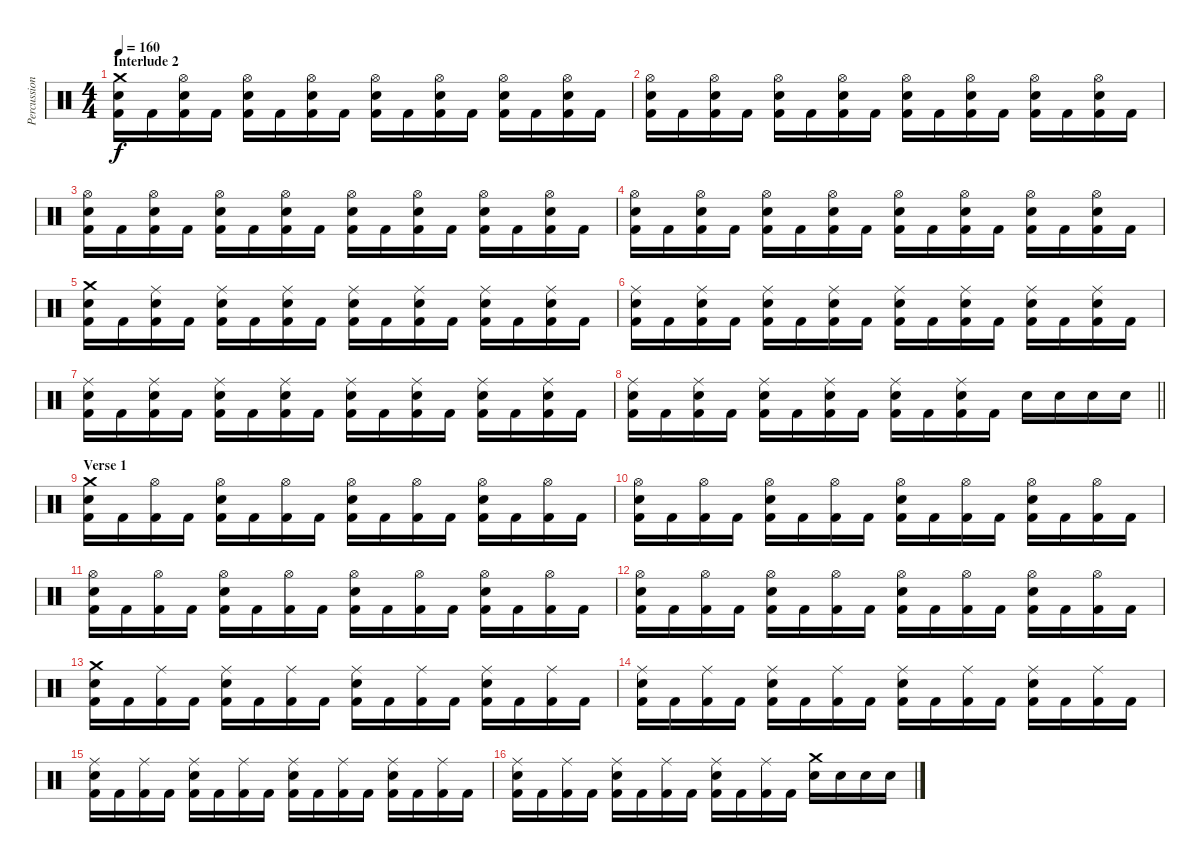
\track ("Percussion" "Percussion") {instrument percussion}
\staff {score}
\articulation defaults
\ts (4 4)
\section ("" "Interlude 2")
\tempo 160
\clef neutral
\ks c
("Crash medium (hit)" "Snare (hit) 2" "Kick (hit) 2").16{dy f} "Kick (hit) 2".16 ("Hi-Hat (open)" "Snare (hit) 2" "Kick (hit) 2").16 "Kick (hit) 2".16 ("Hi-Hat (open)" "Snare (hit) 2" "Kick (hit) 2").16 "Kick (hit) 2".16 ("Hi-Hat (open)" "Snare (hit) 2" "Kick (hit) 2").16 "Kick (hit) 2".16 ("Hi-Hat (open)" "Snare (hit) 2" "Kick (hit) 2").16 "Kick (hit) 2".16 ("Hi-Hat (open)" "Snare (hit) 2" "Kick (hit) 2").16 "Kick (hit) 2".16 ("Hi-Hat (open)" "Snare (hit) 2" "Kick (hit) 2").16 "Kick (hit) 2".16 ("Hi-Hat (open)" "Snare (hit) 2" "Kick (hit) 2").16 "Kick (hit) 2".16 |
("Hi-Hat (open)" "Snare (hit) 2" "Kick (hit) 2").16 "Kick (hit) 2".16 ("Hi-Hat (open)" "Snare (hit) 2" "Kick (hit) 2").16 "Kick (hit) 2".16 ("Hi-Hat (open)" "Snare (hit) 2" "Kick (hit) 2").16 "Kick (hit) 2".16 ("Hi-Hat (open)" "Snare (hit) 2" "Kick (hit) 2").16 "Kick (hit) 2".16 ("Hi-Hat (open)" "Snare (hit) 2" "Kick (hit) 2").16 "Kick (hit) 2".16 ("Hi-Hat (open)" "Snare (hit) 2" "Kick (hit) 2").16 "Kick (hit) 2".16 ("Hi-Hat (open)" "Snare (hit) 2" "Kick (hit) 2").16 "Kick (hit) 2".16 ("Hi-Hat (open)" "Snare (hit) 2" "Kick (hit) 2").16 "Kick (hit) 2".16 |
("Hi-Hat (open)" "Snare (hit) 2" "Kick (hit) 2").16 "Kick (hit) 2".16 ("Hi-Hat (open)" "Snare (hit) 2" "Kick (hit) 2").16 "Kick (hit) 2".16 ("Hi-Hat (open)" "Snare (hit) 2" "Kick (hit) 2").16 "Kick (hit) 2".16 ("Hi-Hat (open)" "Snare (hit) 2" "Kick (hit) 2").16 "Kick (hit) 2".16 ("Hi-Hat (open)" "Snare (hit) 2" "Kick (hit) 2").16 "Kick (hit) 2".16 ("Hi-Hat (open)" "Snare (hit) 2" "Kick (hit) 2").16 "Kick (hit) 2".16 ("Hi-Hat (open)" "Snare (hit) 2" "Kick (hit) 2").16 "Kick (hit) 2".16 ("Hi-Hat (open)" "Snare (hit) 2" "Kick (hit) 2").16 "Kick (hit) 2".16 |
("Hi-Hat (open)" "Snare (hit) 2" "Kick (hit) 2").16 "Kick (hit) 2".16 ("Hi-Hat (open)" "Snare (hit) 2" "Kick (hit) 2").16 "Kick (hit) 2".16 ("Hi-Hat (open)" "Snare (hit) 2" "Kick (hit) 2").16 "Kick (hit) 2".16 ("Hi-Hat (open)" "Snare (hit) 2" "Kick (hit) 2").16 "Kick (hit) 2".16 ("Hi-Hat (open)" "Snare (hit) 2" "Kick (hit) 2").16 "Kick (hit) 2".16 ("Hi-Hat (open)" "Snare (hit) 2" "Kick (hit) 2").16 "Kick (hit) 2".16 ("Hi-Hat (open)" "Snare (hit) 2" "Kick (hit) 2").16 "Kick (hit) 2".16 ("Hi-Hat (open)" "Snare (hit) 2" "Kick (hit) 2").16 "Kick (hit) 2".16 |
("Crash medium (hit)" "Snare (hit) 2" "Kick (hit) 2").16 "Kick (hit) 2".16 ("Ride (middle)" "Snare (hit) 2" "Kick (hit) 2").16 "Kick (hit) 2".16 ("Ride (middle)" "Snare (hit) 2" "Kick (hit) 2").16 "Kick (hit) 2".16 ("Ride (middle)" "Snare (hit) 2" "Kick (hit) 2").16 "Kick (hit) 2".16 ("Ride (middle)" "Snare (hit) 2" "Kick (hit) 2").16 "Kick (hit) 2".16 ("Ride (middle)" "Snare (hit) 2" "Kick (hit) 2").16 "Kick (hit) 2".16 ("Ride (middle)" "Snare (hit) 2" "Kick (hit) 2").16 "Kick (hit) 2".16 ("Ride (middle)" "Snare (hit) 2" "Kick (hit) 2").16 "Kick (hit) 2".16 |
("Ride (middle)" "Snare (hit) 2" "Kick (hit) 2").16 "Kick (hit) 2".16 ("Ride (middle)" "Snare (hit) 2" "Kick (hit) 2").16 "Kick (hit) 2".16 ("Ride (middle)" "Snare (hit) 2" "Kick (hit) 2").16 "Kick (hit) 2".16 ("Ride (middle)" "Snare (hit) 2" "Kick (hit) 2").16 "Kick (hit) 2".16 ("Ride (middle)" "Snare (hit) 2" "Kick (hit) 2").16 "Kick (hit) 2".16 ("Ride (middle)" "Snare (hit) 2" "Kick (hit) 2").16 "Kick (hit) 2".16 ("Ride (middle)" "Snare (hit) 2" "Kick (hit) 2").16 "Kick (hit) 2".16 ("Ride (middle)" "Snare (hit) 2" "Kick (hit) 2").16 "Kick (hit) 2".16 |
("Ride (middle)" "Snare (hit) 2" "Kick (hit) 2").16 "Kick (hit) 2".16 ("Ride (middle)" "Snare (hit) 2" "Kick (hit) 2").16 "Kick (hit) 2".16 ("Ride (middle)" "Snare (hit) 2" "Kick (hit) 2").16 "Kick (hit) 2".16 ("Ride (middle)" "Snare (hit) 2" "Kick (hit) 2").16 "Kick (hit) 2".16 ("Ride (middle)" "Snare (hit) 2" "Kick (hit) 2").16 "Kick (hit) 2".16 ("Ride (middle)" "Snare (hit) 2" "Kick (hit) 2").16 "Kick (hit) 2".16 ("Ride (middle)" "Snare (hit) 2" "Kick (hit) 2").16 "Kick (hit) 2".16 ("Ride (middle)" "Snare (hit) 2" "Kick (hit) 2").16 "Kick (hit) 2".16 |
\barLineRight lightlight
("Ride (middle)" "Snare (hit) 2" "Kick (hit) 2").16 "Kick (hit) 2".16 ("Ride (middle)" "Snare (hit) 2" "Kick (hit) 2").16 "Kick (hit) 2".16 ("Ride (middle)" "Snare (hit) 2" "Kick (hit) 2").16 "Kick (hit) 2".16 ("Ride (middle)" "Snare (hit) 2" "Kick (hit) 2").16 "Kick (hit) 2".16 ("Ride (middle)" "Snare (hit) 2" "Kick (hit) 2").16 "Kick (hit) 2".16 ("Ride (middle)" "Snare (hit) 2" "Kick (hit) 2").16 "Kick (hit) 2".16 "Snare (hit) 2".16 "Snare (hit) 2".16 "Snare (hit) 2".16 "Snare (hit) 2".16 |
\section ("" "Verse 1")
("Crash medium (hit)" "Snare (hit) 2" "Kick (hit) 2").16 "Kick (hit) 2".16 ("Hi-Hat (open)" "Kick (hit) 2").16 "Kick (hit) 2".16 ("Hi-Hat (open)" "Snare (hit) 2" "Kick (hit) 2").16 "Kick (hit) 2".16 ("Hi-Hat (open)" "Kick (hit) 2").16 "Kick (hit) 2".16 ("Hi-Hat (open)" "Snare (hit) 2" "Kick (hit) 2").16 "Kick (hit) 2".16 ("Hi-Hat (open)" "Kick (hit) 2").16 "Kick (hit) 2".16 ("Hi-Hat (open)" "Snare (hit) 2" "Kick (hit) 2").16 "Kick (hit) 2".16 ("Hi-Hat (open)" "Kick (hit) 2").16 "Kick (hit) 2".16 |
("Hi-Hat (open)" "Snare (hit) 2" "Kick (hit) 2").16 "Kick (hit) 2".16 ("Hi-Hat (open)" "Kick (hit) 2").16 "Kick (hit) 2".16 ("Hi-Hat (open)" "Snare (hit) 2" "Kick (hit) 2").16 "Kick (hit) 2".16 ("Hi-Hat (open)" "Kick (hit) 2").16 "Kick (hit) 2".16 ("Hi-Hat (open)" "Snare (hit) 2" "Kick (hit) 2").16 "Kick (hit) 2".16 ("Hi-Hat (open)" "Kick (hit) 2").16 "Kick (hit) 2".16 ("Hi-Hat (open)" "Snare (hit) 2" "Kick (hit) 2").16 "Kick (hit) 2".16 ("Hi-Hat (open)" "Kick (hit) 2").16 "Kick (hit) 2".16 |
("Hi-Hat (open)" "Snare (hit) 2" "Kick (hit) 2").16 "Kick (hit) 2".16 ("Hi-Hat (open)" "Kick (hit) 2").16 "Kick (hit) 2".16 ("Hi-Hat (open)" "Snare (hit) 2" "Kick (hit) 2").16 "Kick (hit) 2".16 ("Hi-Hat (open)" "Kick (hit) 2").16 "Kick (hit) 2".16 ("Hi-Hat (open)" "Snare (hit) 2" "Kick (hit) 2").16 "Kick (hit) 2".16 ("Hi-Hat (open)" "Kick (hit) 2").16 "Kick (hit) 2".16 ("Hi-Hat (open)" "Snare (hit) 2" "Kick (hit) 2").16 "Kick (hit) 2".16 ("Hi-Hat (open)" "Kick (hit) 2").16 "Kick (hit) 2".16 |
("Hi-Hat (open)" "Snare (hit) 2" "Kick (hit) 2").16 "Kick (hit) 2".16 ("Hi-Hat (open)" "Kick (hit) 2").16 "Kick (hit) 2".16 ("Hi-Hat (open)" "Snare (hit) 2" "Kick (hit) 2").16 "Kick (hit) 2".16 ("Hi-Hat (open)" "Kick (hit) 2").16 "Kick (hit) 2".16 ("Hi-Hat (open)" "Snare (hit) 2" "Kick (hit) 2").16 "Kick (hit) 2".16 ("Hi-Hat (open)" "Kick (hit) 2").16 "Kick (hit) 2".16 ("Hi-Hat (open)" "Snare (hit) 2" "Kick (hit) 2").16 "Kick (hit) 2".16 ("Hi-Hat (open)" "Kick (hit) 2").16 "Kick (hit) 2".16 |
("Crash medium (hit)" "Snare (hit) 2" "Kick (hit) 2").16 "Kick (hit) 2".16 ("Ride (middle)" "Kick (hit) 2").16 "Kick (hit) 2".16 ("Ride (middle)" "Snare (hit) 2" "Kick (hit) 2").16 "Kick (hit) 2".16 ("Ride (middle)" "Kick (hit) 2").16 "Kick (hit) 2".16 ("Ride (middle)" "Snare (hit) 2" "Kick (hit) 2").16 "Kick (hit) 2".16 ("Ride (middle)" "Kick (hit) 2").16 "Kick (hit) 2".16 ("Ride (middle)" "Snare (hit) 2" "Kick (hit) 2").16 "Kick (hit) 2".16 ("Ride (middle)" "Kick (hit) 2").16 "Kick (hit) 2".16 |
("Ride (middle)" "Snare (hit) 2" "Kick (hit) 2").16 "Kick (hit) 2".16 ("Ride (middle)" "Kick (hit) 2").16 "Kick (hit) 2".16 ("Ride (middle)" "Snare (hit) 2" "Kick (hit) 2").16 "Kick (hit) 2".16 ("Ride (middle)" "Kick (hit) 2").16 "Kick (hit) 2".16 ("Ride (middle)" "Snare (hit) 2" "Kick (hit) 2").16 "Kick (hit) 2".16 ("Ride (middle)" "Kick (hit) 2").16 "Kick (hit) 2".16 ("Ride (middle)" "Snare (hit) 2" "Kick (hit) 2").16 "Kick (hit) 2".16 ("Ride (middle)" "Kick (hit) 2").16 "Kick (hit) 2".16 |
("Ride (middle)" "Snare (hit) 2" "Kick (hit) 2").16 "Kick (hit) 2".16 ("Ride (middle)" "Kick (hit) 2").16 "Kick (hit) 2".16 ("Ride (middle)" "Snare (hit) 2" "Kick (hit) 2").16 "Kick (hit) 2".16 ("Ride (middle)" "Kick (hit) 2").16 "Kick (hit) 2".16 ("Ride (middle)" "Snare (hit) 2" "Kick (hit) 2").16 "Kick (hit) 2".16 ("Ride (middle)" "Kick (hit) 2").16 "Kick (hit) 2".16 ("Ride (middle)" "Snare (hit) 2" "Kick (hit) 2").16 "Kick (hit) 2".16 ("Ride (middle)" "Kick (hit) 2").16 "Kick (hit) 2".16 |
("Ride (middle)" "Snare (hit) 2" "Kick (hit) 2").16 "Kick (hit) 2".16 ("Ride (middle)" "Kick (hit) 2").16 "Kick (hit) 2".16 ("Ride (middle)" "Snare (hit) 2" "Kick (hit) 2").16 "Kick (hit) 2".16 ("Ride (middle)" "Kick (hit) 2").16 "Kick (hit) 2".16 ("Ride (middle)" "Snare (hit) 2" "Kick (hit) 2").16 "Kick (hit) 2".16 ("Ride (middle)" "Kick (hit) 2").16 "Kick (hit) 2".16 ("Crash medium (hit)" "Snare (hit) 2").16 "Snare (hit) 2".16 "Snare (hit) 2".16 "Snare (hit) 2".16
